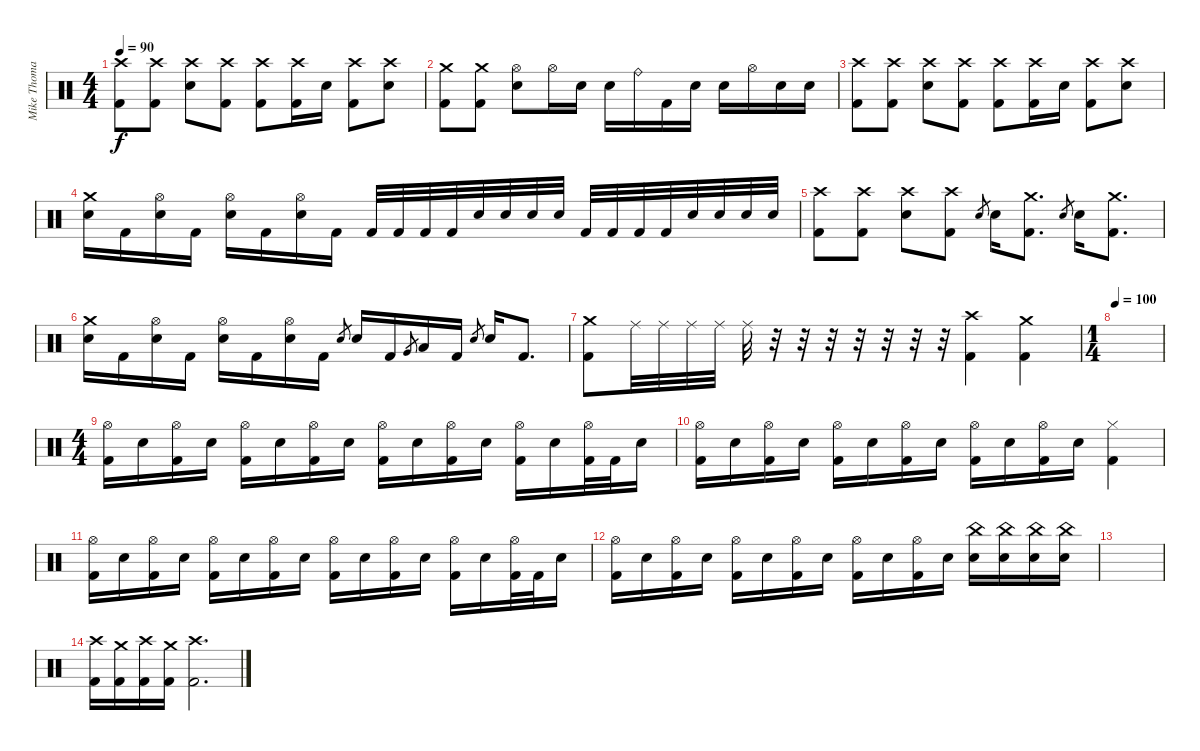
\track ("Mike Thomas (moose)" "Mike Thoma") {instrument percussion}
\staff {score}
\articulation defaults
\ts (4 4)
\tempo 90
\clef neutral
\ks c
("Crash high (hit)" "Kick (hit) 2").8{dy f} ("Crash high (hit)" "Kick (hit) 2").8 ("Crash high (hit)" "Electric Snare (hit)").8 ("Crash high (hit)" "Kick (hit) 2").8 ("Crash high (hit)" "Kick (hit) 2").8 ("Crash high (hit)" "Kick (hit) 2").16 "Electric Snare (hit)".16 ("Crash high (hit)" "Kick (hit) 2").8 ("Crash high (hit)" "Electric Snare (hit)").8 |
("Crash medium (hit)" "Kick (hit) 2").8 ("Crash medium (hit)" "Kick (hit) 2").8 ("Hi-Hat (open)" "Electric Snare (hit)").8 "Hi-Hat (open)".16 "Electric Snare (hit)".16 "Electric Snare (hit)".16 "Ride (bell)".16 "Kick (hit) 2".16 "Electric Snare (hit)".16 "Electric Snare (hit)".16 "Hi-Hat (open)".16 "Electric Snare (hit)".16 "Electric Snare (hit)".16 |
("Crash high (hit)" "Kick (hit) 2").8 ("Crash high (hit)" "Kick (hit) 2").8 ("Crash high (hit)" "Electric Snare (hit)").8 ("Crash high (hit)" "Kick (hit) 2").8 ("Crash high (hit)" "Kick (hit) 2").8 ("Crash high (hit)" "Kick (hit) 2").16 "Electric Snare (hit)".16 ("Crash high (hit)" "Kick (hit) 2").8 ("Crash high (hit)" "Electric Snare (hit)").8 |
("Crash medium (hit)" "Electric Snare (hit)").16 "Kick (hit) 2".16 ("Hi-Hat (open)" "Electric Snare (hit)").16 "Kick (hit) 2".16 ("Hi-Hat (open)" "Electric Snare (hit)").16 "Kick (hit) 2".16 ("Hi-Hat (open)" "Electric Snare (hit)").16 "Kick (hit) 2".16 "Kick (hit) 2".32 "Kick (hit) 2".32 "Kick (hit) 2".32 "Kick (hit) 2".32 "Electric Snare (hit)".32 "Electric Snare (hit)".32 "Electric Snare (hit)".32 "Electric Snare (hit)".32 "Kick (hit) 2".32 "Kick (hit) 2".32 "Kick (hit) 2".32 "Kick (hit) 2".32 "Electric Snare (hit)".32 "Electric Snare (hit)".32 "Electric Snare (hit)".32 "Electric Snare (hit)".32 |
("Crash high (hit)" "Kick (hit) 2").8 ("Crash high (hit)" "Kick (hit) 2").8 ("Crash high (hit)" "Electric Snare (hit)").8 ("Crash high (hit)" "Kick (hit) 2").8 "Electric Snare (hit)".8{gr} "Electric Snare (hit)".16 ("Crash medium (hit)" "Kick (hit) 2").8{d} "Electric Snare (hit)".8{gr} "Electric Snare (hit)".16 ("Crash medium (hit)" "Kick (hit) 2").8{d} |
("Crash medium (hit)" "Electric Snare (hit)").16 "Kick (hit) 2".16 ("Hi-Hat (open)" "Electric Snare (hit)").16 "Kick (hit) 2".16 ("Hi-Hat (open)" "Electric Snare (hit)").16 "Kick (hit) 2".16 ("Hi-Hat (open)" "Electric Snare (hit)").16 "Kick (hit) 2".16 "Electric Snare (hit)".8{gr} "Electric Snare (hit)".16 "Kick (hit) 2".16 "Very Low Tom (hit)".8{gr} "Low Floor Tom (hit)".16 "Kick (hit) 2".16 "Electric Snare (hit)".8{gr} "Electric Snare (hit)".16 "Kick (hit) 2".8{d} |
("Crash medium (hit)" "Kick (hit) 2").8 "Ride (middle)".32 "Ride (middle)".32 "Ride (middle)".32 "Ride (middle)".32 "Ride (middle)".32 r.32 r.32 r.32 r.32 r.32 r.32 r.32 ("Crash high (hit)" "Kick (hit) 2").4 ("Crash medium (hit)" "Kick (hit) 2").4 |
\ts (1 4)
\tempo 100
|
\ts (4 4)
("Hi-Hat (open)" "Kick (hit) 2").16 "Electric Snare (hit)".16 ("Hi-Hat (open)" "Kick (hit) 2").16 "Electric Snare (hit)".16 ("Hi-Hat (open)" "Kick (hit) 2").16 "Electric Snare (hit)".16 ("Hi-Hat (open)" "Kick (hit) 2").16 "Electric Snare (hit)".16 ("Hi-Hat (open)" "Kick (hit) 2").16 "Electric Snare (hit)".16 ("Hi-Hat (open)" "Kick (hit) 2").16 "Electric Snare (hit)".16 ("Hi-Hat (open)" "Kick (hit) 2").16 "Electric Snare (hit)".16 ("Hi-Hat (open)" "Kick (hit) 2").32 "Kick (hit) 2".32 "Electric Snare (hit)".16 |
("Hi-Hat (open)" "Kick (hit) 2").16 "Electric Snare (hit)".16 ("Hi-Hat (open)" "Kick (hit) 2").16 "Electric Snare (hit)".16 ("Hi-Hat (open)" "Kick (hit) 2").16 "Electric Snare (hit)".16 ("Hi-Hat (open)" "Kick (hit) 2").16 "Electric Snare (hit)".16 ("Hi-Hat (open)" "Kick (hit) 2").16 "Electric Snare (hit)".16 ("Hi-Hat (open)" "Kick (hit) 2").16 "Electric Snare (hit)".16 ("Hi-Hat (closed)" "Kick (hit) 2").4 |
("Hi-Hat (open)" "Kick (hit) 2").16 "Electric Snare (hit)".16 ("Hi-Hat (open)" "Kick (hit) 2").16 "Electric Snare (hit)".16 ("Hi-Hat (open)" "Kick (hit) 2").16 "Electric Snare (hit)".16 ("Hi-Hat (open)" "Kick (hit) 2").16 "Electric Snare (hit)".16 ("Hi-Hat (open)" "Kick (hit) 2").16 "Electric Snare (hit)".16 ("Hi-Hat (open)" "Kick (hit) 2").16 "Electric Snare (hit)".16 ("Hi-Hat (open)" "Kick (hit) 2").16 "Electric Snare (hit)".16 ("Hi-Hat (open)" "Kick (hit) 2").32 "Kick (hit) 2".32 "Electric Snare (hit)".16 |
("Hi-Hat (open)" "Kick (hit) 2").16 "Electric Snare (hit)".16 ("Hi-Hat (open)" "Kick (hit) 2").16 "Electric Snare (hit)".16 ("Hi-Hat (open)" "Kick (hit) 2").16 "Electric Snare (hit)".16 ("Hi-Hat (open)" "Kick (hit) 2").16 "Electric Snare (hit)".16 ("Hi-Hat (open)" "Kick (hit) 2").16 "Electric Snare (hit)".16 ("Hi-Hat (open)" "Kick (hit) 2").16 "Electric Snare (hit)".16 ("China (hit)" "Electric Snare (hit)").16 ("China (hit)" "Electric Snare (hit)").16 ("China (hit)" "Electric Snare (hit)").16 ("China (hit)" "Electric Snare (hit)").16 |
|
("Crash high (hit)" "Kick (hit) 2").16 ("Crash medium (hit)" "Kick (hit) 2").16 ("Crash high (hit)" "Kick (hit) 2").16 ("Crash medium (hit)" "Kick (hit) 2").16 ("Crash high (hit)" "Kick (hit) 2").2{d}
